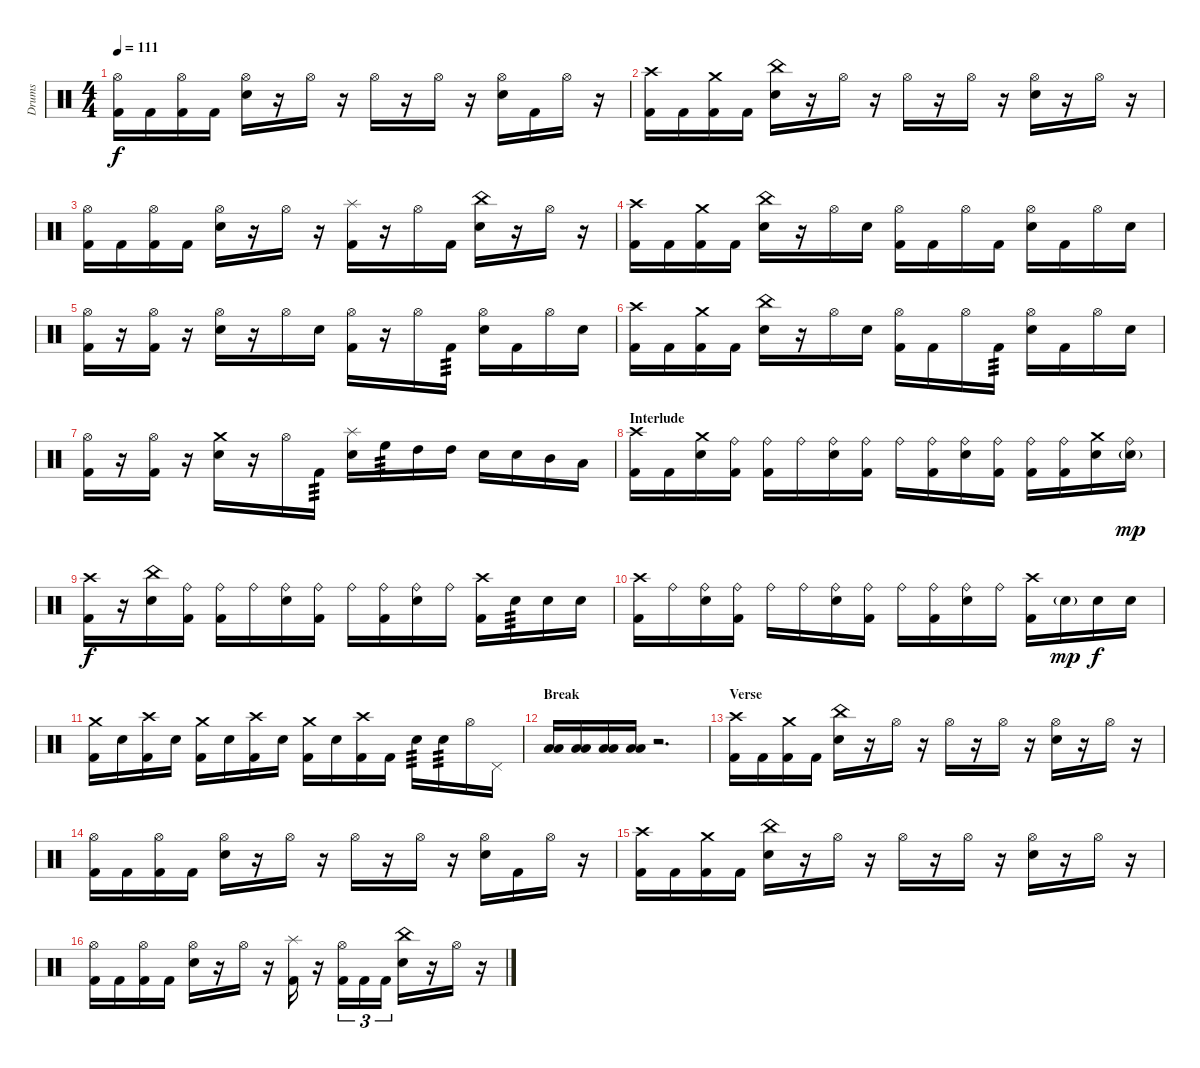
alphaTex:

\track ("Drums" "Drums") {instrument percussion}
\staff {score}
\articulation defaults
\ts (4 4)
\tempo 111
\clef neutral
\ks c
("Hi-Hat (open)" "Kick (hit) 2").16{dy f} "Kick (hit) 2".16 ("Hi-Hat (open)" "Kick (hit) 2").16 "Kick (hit) 2".16 ("Hi-Hat (open)" "Electric Snare (hit)").16 r.16 "Hi-Hat (open)".16 r.16 "Hi-Hat (open)".16 r.16 "Hi-Hat (open)".16 r.16 ("Hi-Hat (open)" "Electric Snare (hit)").16 "Kick (hit) 2".16 "Hi-Hat (open)".16 r.16 |
("Crash high (hit)" "Kick (hit) 2").16 "Kick (hit) 2".16 ("Crash medium (hit)" "Kick (hit) 2").16 "Kick (hit) 2".16 ("China (hit)" "Electric Snare (hit)").16 r.16 "Hi-Hat (open)".16 r.16 "Hi-Hat (open)".16 r.16 "Hi-Hat (open)".16 r.16 ("Hi-Hat (open)" "Electric Snare (hit)").16 r.16 "Hi-Hat (open)".16 r.16 |
("Hi-Hat (open)" "Kick (hit) 2").16 "Kick (hit) 2".16 ("Hi-Hat (open)" "Kick (hit) 2").16 "Kick (hit) 2".16 ("Hi-Hat (open)" "Electric Snare (hit)").16 r.16 "Hi-Hat (open)".16 r.16 ("Splash (hit)" "Kick (hit) 2").16 r.16 "Hi-Hat (open)".16 "Kick (hit) 2".16 ("China (hit)" "Electric Snare (hit)").16 r.16 "Hi-Hat (open)".16 r.16 |
("Crash high (hit)" "Kick (hit) 2").16 "Kick (hit) 2".16 ("Crash medium (hit)" "Kick (hit) 2").16 "Kick (hit) 2".16 ("China (hit)" "Electric Snare (hit)").16 r.16 "Hi-Hat (open)".16 "Electric Snare (hit)".16 ("Hi-Hat (open)" "Kick (hit) 2").16 "Kick (hit) 2".16 "Hi-Hat (open)".16 "Kick (hit) 2".16 ("Hi-Hat (open)" "Electric Snare (hit)").16 "Kick (hit) 2".16 "Hi-Hat (open)".16 "Electric Snare (hit)".16 |
("Hi-Hat (open)" "Kick (hit) 2").16 r.16 ("Hi-Hat (open)" "Kick (hit) 2").16 r.16 ("Hi-Hat (open)" "Electric Snare (hit)").16 r.16 "Hi-Hat (open)".16 "Electric Snare (hit)".16 ("Hi-Hat (open)" "Kick (hit) 2").16 r.16 "Hi-Hat (open)".16 "Kick (hit) 2".16{tp 3} ("Hi-Hat (open)" "Electric Snare (hit)").16 "Kick (hit) 2".16 "Hi-Hat (open)".16 "Electric Snare (hit)".16 |
("Crash high (hit)" "Kick (hit) 2").16 "Kick (hit) 2".16 ("Crash medium (hit)" "Kick (hit) 2").16 "Kick (hit) 2".16 ("China (hit)" "Electric Snare (hit)").16 r.16 "Hi-Hat (open)".16 "Electric Snare (hit)".16 ("Hi-Hat (open)" "Kick (hit) 2").16 "Kick (hit) 2".16 "Hi-Hat (open)".16 "Kick (hit) 2".16{tp 3} ("Hi-Hat (open)" "Electric Snare (hit)").16 "Kick (hit) 2".16 "Hi-Hat (open)".16 "Electric Snare (hit)".16 |
("Hi-Hat (open)" "Kick (hit) 2").16 r.16 ("Hi-Hat (open)" "Kick (hit) 2").16 r.16 ("Crash medium (hit)" "Electric Snare (hit)").16 r.16 "Hi-Hat (open)".16 "Kick (hit) 2".16{tp 3} ("Splash (hit)" "Electric Snare (hit)").16 "High Floor Tom (hit)".16{tp 3} "High Tom (hit)".16 "High Tom (hit)".16 "Electric Snare (hit)".16 "Electric Snare (hit)".16 "Mid Tom (hit)".16 "Low Tom (hit)".16 |
\section ("" "Interlude")
("Crash high (hit)" "Kick (hit) 2").16 "Kick (hit) 2".16 ("Crash medium (hit)" "Electric Snare (hit)").16 ("Ride (bell)" "Kick (hit) 2").16 ("Ride (bell)" "Kick (hit) 2").16 "Ride (bell)".16 ("Ride (bell)" "Electric Snare (hit)").16 ("Ride (bell)" "Kick (hit) 2").16 "Ride (bell)".16 ("Ride (bell)" "Kick (hit) 2").16 ("Ride (bell)" "Electric Snare (hit)").16 ("Ride (bell)" "Kick (hit) 2").16 ("Ride (bell)" "Kick (hit) 2").16 ("Ride (bell)" "Kick (hit) 2").16 ("Crash medium (hit)" "Electric Snare (hit)").16 ("Ride (bell)" "Electric Snare (hit)"{g}).16{dy mp} |
("Crash high (hit)" "Kick (hit) 2").16{dy f} r.16 ("China (hit)" "Electric Snare (hit)").16 ("Ride (bell)" "Kick (hit) 2").16 ("Ride (bell)" "Kick (hit) 2").16 "Ride (bell)".16 ("Ride (bell)" "Electric Snare (hit)").16 ("Ride (bell)" "Kick (hit) 2").16 "Ride (bell)".16 ("Ride (bell)" "Kick (hit) 2").16 ("Ride (bell)" "Electric Snare (hit)").16 "Ride (bell)".16 ("Crash high (hit)" "Kick (hit) 2").16 "Electric Snare (hit)".16{tp 3} "Electric Snare (hit)".16 "Electric Snare (hit)".16 |
("Crash high (hit)" "Kick (hit) 2").16 "Ride (bell)".16 ("Ride (bell)" "Electric Snare (hit)").16 ("Ride (bell)" "Kick (hit) 2").16 "Ride (bell)".16 "Ride (bell)".16 ("Ride (bell)" "Electric Snare (hit)").16 ("Ride (bell)" "Kick (hit) 2").16 "Ride (bell)".16 ("Ride (bell)" "Kick (hit) 2").16 ("Ride (bell)" "Electric Snare (hit)").16 "Ride (bell)".16 ("Crash high (hit)" "Kick (hit) 2").16 "Electric Snare (hit)"{g}.16{dy mp} "Electric Snare (hit)".16{dy f} "Electric Snare (hit)".16 |
("Crash medium (hit)" "Kick (hit) 2").16 "Electric Snare (hit)".16 ("Crash high (hit)" "Kick (hit) 2").16 "Electric Snare (hit)".16 ("Crash medium (hit)" "Kick (hit) 2").16 "Electric Snare (hit)".16 ("Crash high (hit)" "Kick (hit) 2").16 "Electric Snare (hit)".16 ("Crash medium (hit)" "Kick (hit) 2").16 "Electric Snare (hit)".16 ("Crash high (hit)" "Kick (hit) 2").16 "Kick (hit) 2".16 "Electric Snare (hit)".16{tp 3} "Electric Snare (hit)".16{tp 3} "Hi-Hat (open)".16 "Pedal Hi-Hat (hit)".16 |
\section ("" "Break")
("Low Tom (hit)" "Low Floor Tom (hit)").16 ("Low Tom (hit)" "Low Floor Tom (hit)").16 ("Low Tom (hit)" "Low Floor Tom (hit)").16 ("Low Tom (hit)" "Low Floor Tom (hit)").16 r.2{d} |
\section ("" "Verse")
("Crash high (hit)" "Kick (hit) 2").16 "Kick (hit) 2".16 ("Crash medium (hit)" "Kick (hit) 2").16 "Kick (hit) 2".16 ("China (hit)" "Electric Snare (hit)").16 r.16 "Hi-Hat (open)".16 r.16 "Hi-Hat (open)".16 r.16 "Hi-Hat (open)".16 r.16 ("Hi-Hat (open)" "Electric Snare (hit)").16 r.16 "Hi-Hat (open)".16 r.16 |
("Hi-Hat (open)" "Kick (hit) 2").16 "Kick (hit) 2".16 ("Hi-Hat (open)" "Kick (hit) 2").16 "Kick (hit) 2".16 ("Hi-Hat (open)" "Electric Snare (hit)").16 r.16 "Hi-Hat (open)".16 r.16 "Hi-Hat (open)".16 r.16 "Hi-Hat (open)".16 r.16 ("Hi-Hat (open)" "Electric Snare (hit)").16 "Kick (hit) 2".16 "Hi-Hat (open)".16 r.16 |
("Crash high (hit)" "Kick (hit) 2").16 "Kick (hit) 2".16 ("Crash medium (hit)" "Kick (hit) 2").16 "Kick (hit) 2".16 ("China (hit)" "Electric Snare (hit)").16 r.16 "Hi-Hat (open)".16 r.16 "Hi-Hat (open)".16 r.16 "Hi-Hat (open)".16 r.16 ("Hi-Hat (open)" "Electric Snare (hit)").16 r.16 "Hi-Hat (open)".16 r.16 |
("Hi-Hat (open)" "Kick (hit) 2").16 "Kick (hit) 2".16 ("Hi-Hat (open)" "Kick (hit) 2").16 "Kick (hit) 2".16 ("Hi-Hat (open)" "Electric Snare (hit)").16 r.16 "Hi-Hat (open)".16 r.16 ("Splash (hit)" "Kick (hit) 2").16 r.16 ("Hi-Hat (open)" "Kick (hit) 2").16{tu (3 2)} "Kick (hit) 2".16{tu (3 2)} "Kick (hit) 2".16{tu (3 2)} ("China (hit)" "Electric Snare (hit)").16 r.16 "Hi-Hat (open)".16 r.16
